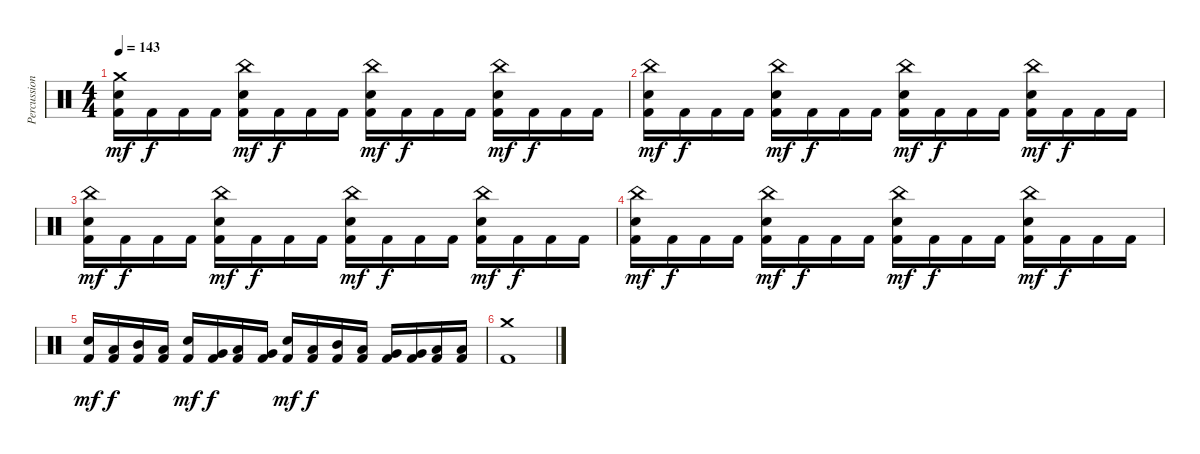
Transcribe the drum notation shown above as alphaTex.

\track ("Percussion" "Percussion") {instrument percussion}
\staff {score}
\articulation defaults
\ts (4 4)
\tempo 143
\clef neutral
\ks c
("Crash medium (hit)" "Electric Snare (hit)" "Kick (hit) 2").16{dy mf} "Kick (hit) 2".16{dy f} "Kick (hit) 2".16 "Kick (hit) 2".16 ("China (hit)" "Electric Snare (hit)" "Kick (hit) 2").16{dy mf} "Kick (hit) 2".16{dy f} "Kick (hit) 2".16 "Kick (hit) 2".16 ("China (hit)" "Electric Snare (hit)" "Kick (hit) 2").16{dy mf} "Kick (hit) 2".16{dy f} "Kick (hit) 2".16 "Kick (hit) 2".16 ("China (hit)" "Electric Snare (hit)" "Kick (hit) 2").16{dy mf} "Kick (hit) 2".16{dy f} "Kick (hit) 2".16 "Kick (hit) 2".16 |
("China (hit)" "Electric Snare (hit)" "Kick (hit) 2").16{dy mf} "Kick (hit) 2".16{dy f} "Kick (hit) 2".16 "Kick (hit) 2".16 ("China (hit)" "Electric Snare (hit)" "Kick (hit) 2").16{dy mf} "Kick (hit) 2".16{dy f} "Kick (hit) 2".16 "Kick (hit) 2".16 ("China (hit)" "Electric Snare (hit)" "Kick (hit) 2").16{dy mf} "Kick (hit) 2".16{dy f} "Kick (hit) 2".16 "Kick (hit) 2".16 ("China (hit)" "Electric Snare (hit)" "Kick (hit) 2").16{dy mf} "Kick (hit) 2".16{dy f} "Kick (hit) 2".16 "Kick (hit) 2".16 |
("China (hit)" "Electric Snare (hit)" "Kick (hit) 2").16{dy mf} "Kick (hit) 2".16{dy f} "Kick (hit) 2".16 "Kick (hit) 2".16 ("China (hit)" "Electric Snare (hit)" "Kick (hit) 2").16{dy mf} "Kick (hit) 2".16{dy f} "Kick (hit) 2".16 "Kick (hit) 2".16 ("China (hit)" "Electric Snare (hit)" "Kick (hit) 2").16{dy mf} "Kick (hit) 2".16{dy f} "Kick (hit) 2".16 "Kick (hit) 2".16 ("China (hit)" "Electric Snare (hit)" "Kick (hit) 2").16{dy mf} "Kick (hit) 2".16{dy f} "Kick (hit) 2".16 "Kick (hit) 2".16 |
("China (hit)" "Electric Snare (hit)" "Kick (hit) 2").16{dy mf} "Kick (hit) 2".16{dy f} "Kick (hit) 2".16 "Kick (hit) 2".16 ("China (hit)" "Electric Snare (hit)" "Kick (hit) 2").16{dy mf} "Kick (hit) 2".16{dy f} "Kick (hit) 2".16 "Kick (hit) 2".16 ("China (hit)" "Electric Snare (hit)" "Kick (hit) 2").16{dy mf} "Kick (hit) 2".16{dy f} "Kick (hit) 2".16 "Kick (hit) 2".16 ("China (hit)" "Electric Snare (hit)" "Kick (hit) 2").16{dy mf} "Kick (hit) 2".16{dy f} "Kick (hit) 2".16 "Kick (hit) 2".16 |
("Electric Snare (hit)" "Kick (hit) 2").16{dy mf} ("Low Tom (hit)" "Kick (hit) 2").16{dy f} ("Mid Tom (hit)" "Kick (hit) 2").16 ("Low Tom (hit)" "Kick (hit) 2").16 ("Electric Snare (hit)" "Kick (hit) 2").16{dy mf} ("Very Low Tom (hit)" "Kick (hit) 2").16{dy f} ("Low Tom (hit)" "Kick (hit) 2").16 ("Very Low Tom (hit)" "Kick (hit) 2").16 ("Electric Snare (hit)" "Kick (hit) 2").16{dy mf} ("Low Tom (hit)" "Kick (hit) 2").16{dy f} ("Mid Tom (hit)" "Kick (hit) 2").16 ("Low Tom (hit)" "Kick (hit) 2").16 ("Very Low Tom (hit)" "Kick (hit) 2").16 ("Very Low Tom (hit)" "Kick (hit) 2").16 ("Low Floor Tom (hit)" "Kick (hit) 2").16 ("Low Floor Tom (hit)" "Kick (hit) 2").16 |
("Crash medium (hit)" "Kick (hit) 2").1
